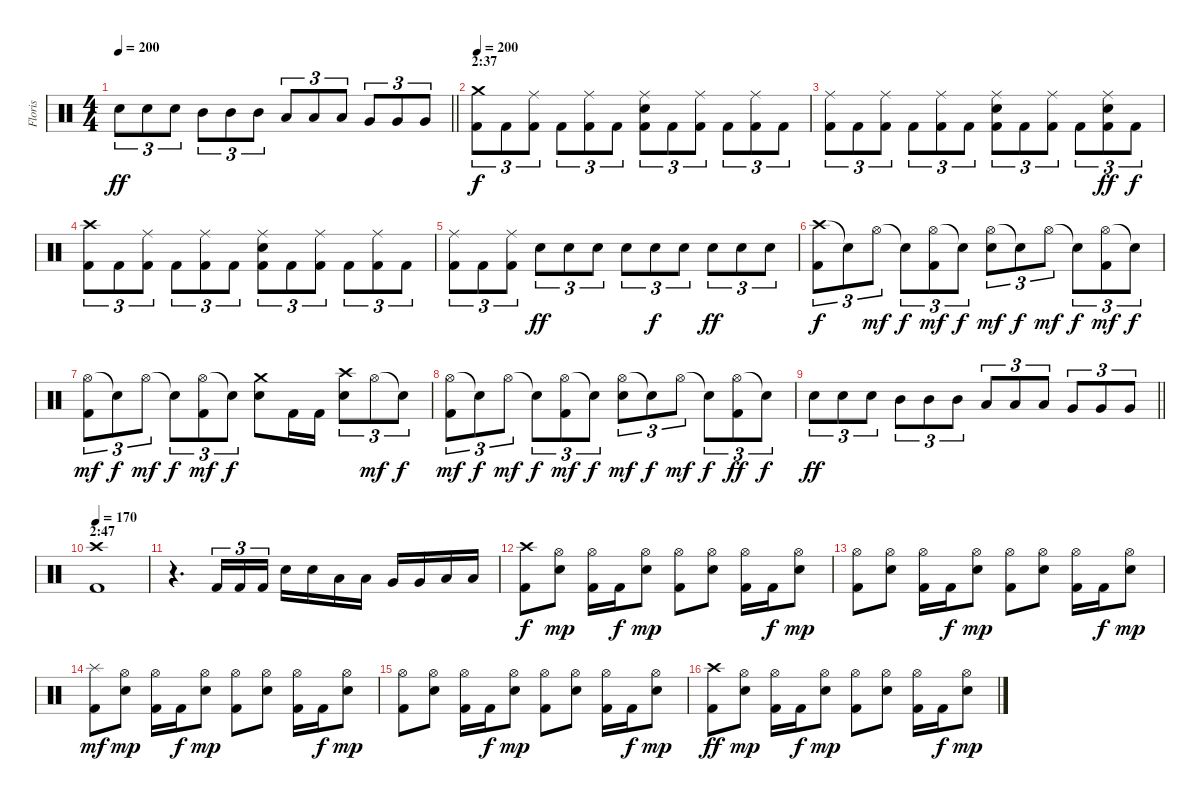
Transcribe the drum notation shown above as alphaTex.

\track ("Floris" "Floris") {instrument percussion}
\staff {score}
\articulation defaults
\ts (4 4)
\tempo 200
\clef neutral
\barLineRight lightlight
\ks c "Electric Snare (hit)".8{tu (3 2) dy ff} "Electric Snare (hit)".8{tu (3 2)} "Electric Snare (hit)".8{tu (3 2)} "Mid Tom (hit)".8{tu (3 2)} "Mid Tom (hit)".8{tu (3 2)} "Mid Tom (hit)".8{tu (3 2)} "Low Tom (hit)".8{tu (3 2)} "Low Tom (hit)".8{tu (3 2)} "Low Tom (hit)".8{tu (3 2)} "Very Low Tom (hit)".8{tu (3 2)} "Very Low Tom (hit)".8{tu (3 2)} "Very Low Tom (hit)".8{tu (3 2)}
|
\section ("" "2:37")
\tempo 200
("Crash medium (hit)" "Kick (hit) 2").8{tu (3 2) dy f} "Kick (hit) 2".8{tu (3 2)} ("Ride (middle)" "Kick (hit) 2").8{tu (3 2)} "Kick (hit) 2".8{tu (3 2)} ("Ride (middle)" "Kick (hit) 2").8{tu (3 2)} "Kick (hit) 2".8{tu (3 2)} ("Ride (middle)" "Electric Snare (hit)" "Kick (hit) 2").8{tu (3 2)} "Kick (hit) 2".8{tu (3 2)} ("Ride (middle)" "Kick (hit) 2").8{tu (3 2)} "Kick (hit) 2".8{tu (3 2)} ("Ride (middle)" "Kick (hit) 2").8{tu (3 2)} "Kick (hit) 2".8{tu (3 2)} |
("Ride (middle)" "Kick (hit) 2").8{tu (3 2)} "Kick (hit) 2".8{tu (3 2)} ("Ride (middle)" "Kick (hit) 2").8{tu (3 2)} "Kick (hit) 2".8{tu (3 2)} ("Ride (middle)" "Kick (hit) 2").8{tu (3 2)} "Kick (hit) 2".8{tu (3 2)} ("Ride (middle)" "Electric Snare (hit)" "Kick (hit) 2").8{tu (3 2)} "Kick (hit) 2".8{tu (3 2)} ("Ride (middle)" "Kick (hit) 2").8{tu (3 2)} "Kick (hit) 2".8{tu (3 2)} ("Ride (middle)" "Electric Snare (hit)" "Kick (hit) 2").8{tu (3 2) dy ff} "Kick (hit) 2".8{tu (3 2) dy f} |
("Crash high (hit)" "Kick (hit) 2").8{tu (3 2)} "Kick (hit) 2".8{tu (3 2)} ("Ride (middle)" "Kick (hit) 2").8{tu (3 2)} "Kick (hit) 2".8{tu (3 2)} ("Ride (middle)" "Kick (hit) 2").8{tu (3 2)} "Kick (hit) 2".8{tu (3 2)} ("Ride (middle)" "Electric Snare (hit)" "Kick (hit) 2").8{tu (3 2)} "Kick (hit) 2".8{tu (3 2)} ("Ride (middle)" "Kick (hit) 2").8{tu (3 2)} "Kick (hit) 2".8{tu (3 2)} ("Ride (middle)" "Kick (hit) 2").8{tu (3 2)} "Kick (hit) 2".8{tu (3 2)} |
("Ride (middle)" "Kick (hit) 2").8{tu (3 2)} "Kick (hit) 2".8{tu (3 2)} ("Ride (middle)" "Kick (hit) 2").8{tu (3 2)} "Electric Snare (hit)".8{tu (3 2) dy ff} "Electric Snare (hit)".8{tu (3 2)} "Electric Snare (hit)".8{tu (3 2)} "Electric Snare (hit)".8{tu (3 2)} "Electric Snare (hit)".8{tu (3 2) dy f} "Electric Snare (hit)".8{tu (3 2)} "Electric Snare (hit)".8{tu (3 2) dy ff} "Electric Snare (hit)".8{tu (3 2)} "Electric Snare (hit)".8{tu (3 2)} |
("Crash high (hit)" "Kick (hit) 2").8{tu (3 2) dy f} "Snare (hit)"{t}.8{tu (3 2)} "Hi-Hat (open)".8{tu (3 2) dy mf} "Snare (hit)"{t}.8{tu (3 2) dy f} ("Hi-Hat (open)" "Kick (hit) 2").8{tu (3 2) dy mf} "Snare (hit)"{t}.8{tu (3 2) dy f} ("Hi-Hat (open)" "Electric Snare (hit)").8{tu (3 2) dy mf} "Snare (hit)"{t}.8{tu (3 2) dy f} "Hi-Hat (open)".8{tu (3 2) dy mf} "Snare (hit)"{t}.8{tu (3 2) dy f} ("Hi-Hat (open)" "Kick (hit) 2").8{tu (3 2) dy mf} "Snare (hit)"{t}.8{tu (3 2) dy f} |
("Hi-Hat (open)" "Kick (hit) 2").8{tu (3 2) dy mf} "Snare (hit)"{t}.8{tu (3 2) dy f} "Hi-Hat (open)".8{tu (3 2) dy mf} "Snare (hit)"{t}.8{tu (3 2) dy f} ("Hi-Hat (open)" "Kick (hit) 2").8{tu (3 2) dy mf} "Snare (hit)"{t}.8{tu (3 2) dy f} ("Crash medium (hit)" "Electric Snare (hit)").8 "Kick (hit) 2".16 "Kick (hit) 2".16 ("Crash high (hit)" "Electric Snare (hit)").8{tu (3 2)} "Hi-Hat (open)".8{tu (3 2) dy mf} "Snare (hit)"{t}.8{tu (3 2) dy f} |
("Hi-Hat (open)" "Kick (hit) 2").8{tu (3 2) dy mf} "Snare (hit)"{t}.8{tu (3 2) dy f} "Hi-Hat (open)".8{tu (3 2) dy mf} "Snare (hit)"{t}.8{tu (3 2) dy f} ("Hi-Hat (open)" "Kick (hit) 2").8{tu (3 2) dy mf} "Snare (hit)"{t}.8{tu (3 2) dy f} ("Hi-Hat (open)" "Electric Snare (hit)").8{tu (3 2) dy mf} "Snare (hit)"{t}.8{tu (3 2) dy f} "Hi-Hat (open)".8{tu (3 2) dy mf} "Snare (hit)"{t}.8{tu (3 2) dy f} ("Hi-Hat (open)" "Kick (hit) 2").8{tu (3 2) dy ff} "Snare (hit)"{t}.8{tu (3 2) dy f} |
\barLineRight lightlight "Electric Snare (hit)".8{tu (3 2) dy ff} "Electric Snare (hit)".8{tu (3 2)} "Electric Snare (hit)".8{tu (3 2)} "Mid Tom (hit)".8{tu (3 2)} "Mid Tom (hit)".8{tu (3 2)} "Mid Tom (hit)".8{tu (3 2)} "Low Tom (hit)".8{tu (3 2)} "Low Tom (hit)".8{tu (3 2)} "Low Tom (hit)".8{tu (3 2)} "Very Low Tom (hit)".8{tu (3 2)} "Very Low Tom (hit)".8{tu (3 2)} "Very Low Tom (hit)".8{tu (3 2)}
|
\section ("" "2:47")
\tempo 170
("Crash high (hit)" "Kick (hit) 2").1 |
r.4{d} "Kick (hit) 2".16{tu (3 2)} "Kick (hit) 2".16{tu (3 2)} "Kick (hit) 2".16{tu (3 2)} "Electric Snare (hit)".16 "Electric Snare (hit)".16 "Low Tom (hit)".16 "Low Tom (hit)".16 "Very Low Tom (hit)".16 "Very Low Tom (hit)".16 "Low Floor Tom (hit)".16 "Low Floor Tom (hit)".16 |
("Crash high (hit)" "Kick (hit) 2").8{dy f} ("Hi-Hat (open)" "Electric Snare (hit)").8{dy mp} ("Hi-Hat (open)" "Kick (hit) 2").16 "Kick (hit) 2".16{dy f} ("Hi-Hat (open)" "Electric Snare (hit)").8{dy mp} ("Hi-Hat (open)" "Kick (hit) 2").8 ("Hi-Hat (open)" "Electric Snare (hit)").8 ("Hi-Hat (open)" "Kick (hit) 2").16 "Kick (hit) 2".16{dy f} ("Hi-Hat (open)" "Electric Snare (hit)").8{dy mp} |
("Hi-Hat (open)" "Kick (hit) 2").8 ("Hi-Hat (open)" "Electric Snare (hit)").8 ("Hi-Hat (open)" "Kick (hit) 2").16 "Kick (hit) 2".16{dy f} ("Hi-Hat (open)" "Electric Snare (hit)").8{dy mp} ("Hi-Hat (open)" "Kick (hit) 2").8 ("Hi-Hat (open)" "Electric Snare (hit)").8 ("Hi-Hat (open)" "Kick (hit) 2").16 "Kick (hit) 2".16{dy f} ("Hi-Hat (open)" "Electric Snare (hit)").8{dy mp} |
("Splash (hit)" "Kick (hit) 2").8{dy mf} ("Hi-Hat (open)" "Electric Snare (hit)").8{dy mp} ("Hi-Hat (open)" "Kick (hit) 2").16 "Kick (hit) 2".16{dy f} ("Hi-Hat (open)" "Electric Snare (hit)").8{dy mp} ("Hi-Hat (open)" "Kick (hit) 2").8 ("Hi-Hat (open)" "Electric Snare (hit)").8 ("Hi-Hat (open)" "Kick (hit) 2").16 "Kick (hit) 2".16{dy f} ("Hi-Hat (open)" "Electric Snare (hit)").8{dy mp} |
("Hi-Hat (open)" "Kick (hit) 2").8 ("Hi-Hat (open)" "Electric Snare (hit)").8 ("Hi-Hat (open)" "Kick (hit) 2").16 "Kick (hit) 2".16{dy f} ("Hi-Hat (open)" "Electric Snare (hit)").8{dy mp} ("Hi-Hat (open)" "Kick (hit) 2").8 ("Hi-Hat (open)" "Electric Snare (hit)").8 ("Hi-Hat (open)" "Kick (hit) 2").16 "Kick (hit) 2".16{dy f} ("Hi-Hat (open)" "Electric Snare (hit)").8{dy mp} |
("Crash high (hit)" "Kick (hit) 2").8{dy ff} ("Hi-Hat (open)" "Electric Snare (hit)").8{dy mp} ("Hi-Hat (open)" "Kick (hit) 2").16 "Kick (hit) 2".16{dy f} ("Hi-Hat (open)" "Electric Snare (hit)").8{dy mp} ("Hi-Hat (open)" "Kick (hit) 2").8 ("Hi-Hat (open)" "Electric Snare (hit)").8 ("Hi-Hat (open)" "Kick (hit) 2").16 "Kick (hit) 2".16{dy f} ("Hi-Hat (open)" "Electric Snare (hit)").8{dy mp}
